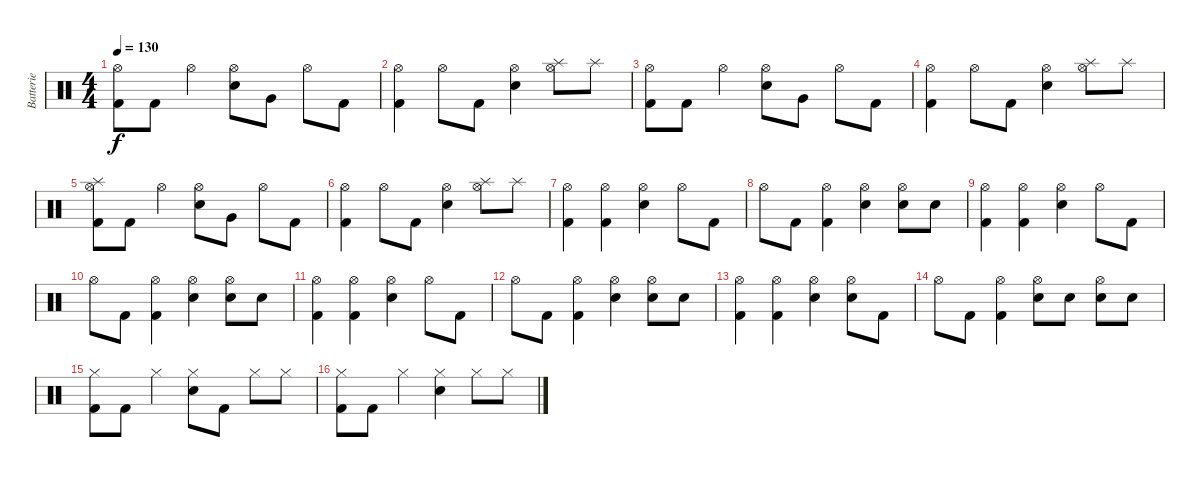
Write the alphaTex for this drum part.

\track ("Batterie" "Batterie") {instrument percussion}
\staff {score}
\articulation defaults
\ts (4 4)
\tempo 130
\clef neutral
\ks c
("Hi-Hat (open)" "Kick (hit) 2").8{dy f} "Kick (hit) 2".8 "Hi-Hat (open)".4 ("Hi-Hat (open)" "Electric Snare (hit)").8 "Very Low Tom (hit)".8 "Hi-Hat (open)".8 "Kick (hit) 2".8 |
("Hi-Hat (open)" "Kick (hit) 2").4 "Hi-Hat (open)".8 "Kick (hit) 2".8 ("Hi-Hat (open)" "Electric Snare (hit)").4 ("Hi-Hat (open)" "Splash (hit)").8 "Splash (hit)".8 |
("Hi-Hat (open)" "Kick (hit) 2").8 "Kick (hit) 2".8 "Hi-Hat (open)".4 ("Hi-Hat (open)" "Electric Snare (hit)").8 "Very Low Tom (hit)".8 "Hi-Hat (open)".8 "Kick (hit) 2".8 |
("Hi-Hat (open)" "Kick (hit) 2").4 "Hi-Hat (open)".8 "Kick (hit) 2".8 ("Hi-Hat (open)" "Electric Snare (hit)").4 ("Hi-Hat (open)" "Splash (hit)").8 "Splash (hit)".8 |
("Hi-Hat (open)" "Splash (hit)" "Kick (hit) 2").8 "Kick (hit) 2".8 "Hi-Hat (open)".4 ("Hi-Hat (open)" "Electric Snare (hit)").8 "Very Low Tom (hit)".8 "Hi-Hat (open)".8 "Kick (hit) 2".8 |
("Hi-Hat (open)" "Kick (hit) 2").4 "Hi-Hat (open)".8 "Kick (hit) 2".8 ("Hi-Hat (open)" "Electric Snare (hit)").4 ("Hi-Hat (open)" "Splash (hit)").8 "Splash (hit)".8 |
("Hi-Hat (open)" "Kick (hit) 2").4 ("Hi-Hat (open)" "Kick (hit) 2").4 ("Hi-Hat (open)" "Electric Snare (hit)").4 "Hi-Hat (open)".8 "Kick (hit) 2".8 |
"Hi-Hat (open)".8 "Kick (hit) 2".8 ("Hi-Hat (open)" "Kick (hit) 2").4 ("Hi-Hat (open)" "Electric Snare (hit)").4 ("Hi-Hat (open)" "Electric Snare (hit)").8 "Electric Snare (hit)".8 |
("Hi-Hat (open)" "Kick (hit) 2").4 ("Hi-Hat (open)" "Kick (hit) 2").4 ("Hi-Hat (open)" "Electric Snare (hit)").4 "Hi-Hat (open)".8 "Kick (hit) 2".8 |
"Hi-Hat (open)".8 "Kick (hit) 2".8 ("Hi-Hat (open)" "Kick (hit) 2").4 ("Hi-Hat (open)" "Electric Snare (hit)").4 ("Hi-Hat (open)" "Electric Snare (hit)").8 "Electric Snare (hit)".8 |
("Hi-Hat (open)" "Kick (hit) 2").4 ("Hi-Hat (open)" "Kick (hit) 2").4 ("Hi-Hat (open)" "Electric Snare (hit)").4 "Hi-Hat (open)".8 "Kick (hit) 2".8 |
"Hi-Hat (open)".8 "Kick (hit) 2".8 ("Hi-Hat (open)" "Kick (hit) 2").4 ("Hi-Hat (open)" "Electric Snare (hit)").4 ("Hi-Hat (open)" "Electric Snare (hit)").8 "Electric Snare (hit)".8 |
("Hi-Hat (open)" "Kick (hit) 2").4 ("Hi-Hat (open)" "Kick (hit) 2").4 ("Hi-Hat (open)" "Electric Snare (hit)").4 ("Hi-Hat (open)" "Electric Snare (hit)").8 "Kick (hit) 2".8 |
"Hi-Hat (open)".8 "Kick (hit) 2".8 ("Hi-Hat (open)" "Kick (hit) 2").4 ("Hi-Hat (open)" "Electric Snare (hit)").8 "Electric Snare (hit)".8 ("Hi-Hat (open)" "Electric Snare (hit)").8 "Electric Snare (hit)".8 |
("Hi-Hat (closed)" "Kick (hit) 2").8 "Kick (hit) 2".8 "Hi-Hat (closed)".4 ("Hi-Hat (closed)" "Electric Snare (hit)").8 "Kick (hit) 2".8 "Hi-Hat (closed)".8 "Hi-Hat (closed)".8 |
("Hi-Hat (closed)" "Kick (hit) 2").8 "Kick (hit) 2".8 "Hi-Hat (closed)".4 ("Hi-Hat (closed)" "Electric Snare (hit)").4 "Hi-Hat (closed)".8 "Hi-Hat (closed)".8
